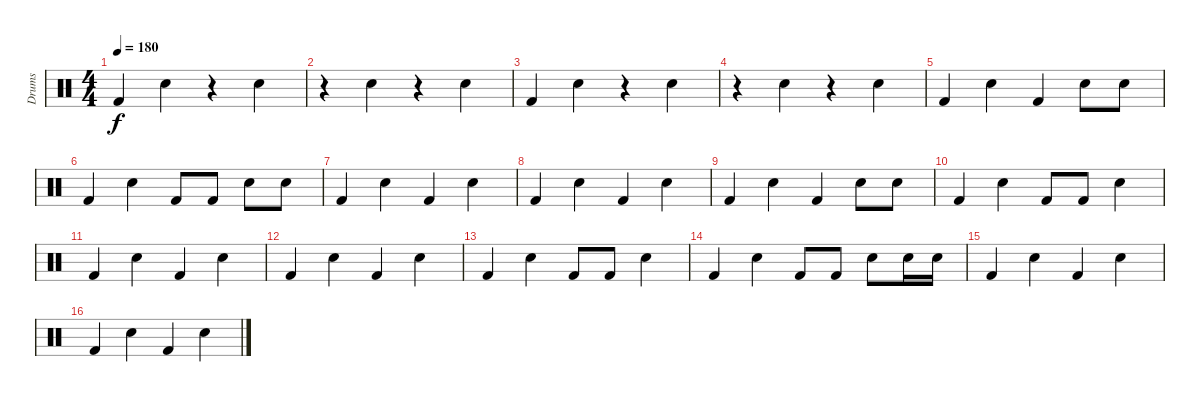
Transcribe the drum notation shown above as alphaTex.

\track ("Drums" "Drums") {instrument percussion}
\staff {score}
\articulation defaults
\ts (4 4)
\tempo 180
\clef neutral
\ks c "Kick (hit) 2".4{dy f} "Snare (hit) 2".4
r.4 "Snare (hit) 2".4 |
r.4 "Snare (hit) 2".4 r.4 "Snare (hit) 2".4 |
"Kick (hit) 2".4 "Snare (hit) 2".4 r.4 "Snare (hit) 2".4 |
r.4 "Snare (hit) 2".4 r.4 "Snare (hit) 2".4 |
"Kick (hit) 2".4 "Snare (hit) 2".4 "Kick (hit) 2".4 "Snare (hit) 2".8 "Snare (hit) 2".8 |
"Kick (hit) 2".4 "Snare (hit) 2".4 "Kick (hit) 2".8 "Kick (hit) 2".8 "Snare (hit) 2".8 "Snare (hit) 2".8 |
"Kick (hit) 2".4 "Snare (hit) 2".4 "Kick (hit) 2".4 "Snare (hit) 2".4 |
"Kick (hit) 2".4 "Snare (hit) 2".4 "Kick (hit) 2".4 "Snare (hit) 2".4 |
"Kick (hit) 2".4 "Snare (hit) 2".4 "Kick (hit) 2".4 "Snare (hit) 2".8 "Snare (hit) 2".8 |
"Kick (hit) 2".4 "Snare (hit) 2".4 "Kick (hit) 2".8 "Kick (hit) 2".8 "Snare (hit) 2".4 |
"Kick (hit) 2".4 "Snare (hit) 2".4 "Kick (hit) 2".4 "Snare (hit) 2".4 |
"Kick (hit) 2".4 "Snare (hit) 2".4 "Kick (hit) 2".4 "Snare (hit) 2".4 |
"Kick (hit) 2".4 "Snare (hit) 2".4 "Kick (hit) 2".8 "Kick (hit) 2".8 "Snare (hit) 2".4 |
"Kick (hit) 2".4 "Snare (hit) 2".4 "Kick (hit) 2".8 "Kick (hit) 2".8 "Snare (hit) 2".8 "Snare (hit) 2".16 "Snare (hit) 2".16 |
"Kick (hit) 2".4 "Snare (hit) 2".4 "Kick (hit) 2".4 "Snare (hit) 2".4 |
"Kick (hit) 2".4 "Snare (hit) 2".4 "Kick (hit) 2".4 "Snare (hit) 2".4
